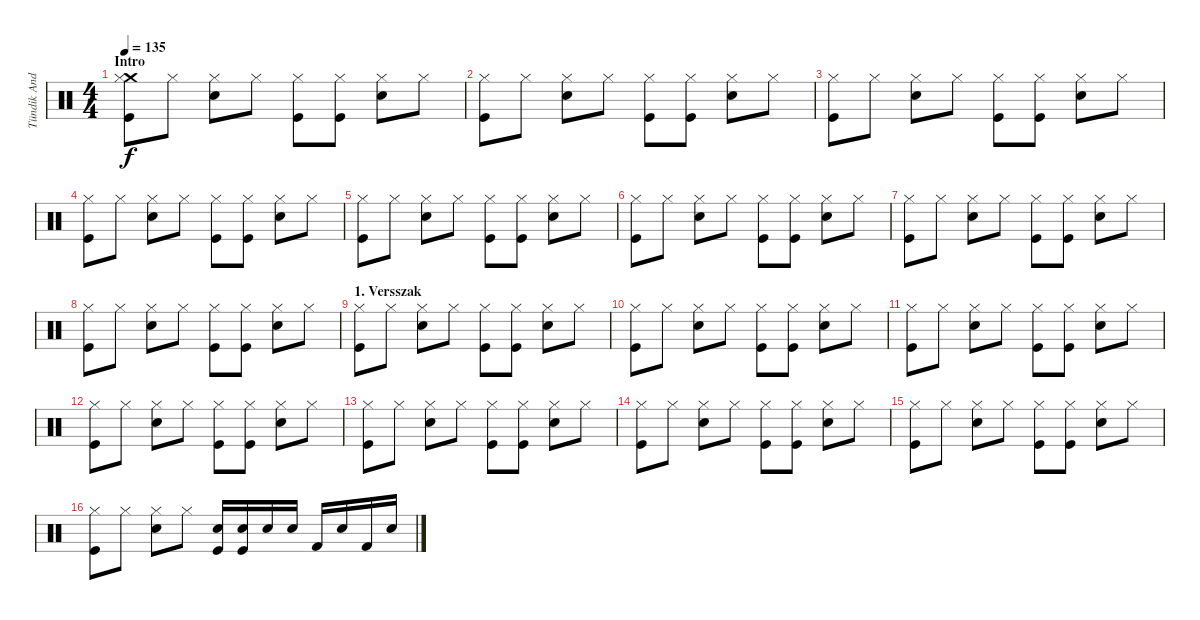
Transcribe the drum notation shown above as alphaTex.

\track ("Tündik András - Dob" "Tündik And") {instrument percussion}
\staff {score}
\articulation defaults
\ts (4 4)
\section ("" "Intro")
\tempo 135
\clef neutral
\ks c
("Crash medium (hit)" "Hi-Hat (closed)" "Kick (hit)").8{dy f} "Hi-Hat (closed)".8 ("Snare (hit) 2" "Hi-Hat (closed)").8 "Hi-Hat (closed)".8 ("Hi-Hat (closed)" "Kick (hit)").8 ("Hi-Hat (closed)" "Kick (hit)").8 ("Snare (hit) 2" "Hi-Hat (closed)").8 "Hi-Hat (closed)".8 |
("Hi-Hat (closed)" "Kick (hit)").8 "Hi-Hat (closed)".8 ("Snare (hit) 2" "Hi-Hat (closed)").8 "Hi-Hat (closed)".8 ("Hi-Hat (closed)" "Kick (hit)").8 ("Hi-Hat (closed)" "Kick (hit)").8 ("Snare (hit) 2" "Hi-Hat (closed)").8 "Hi-Hat (closed)".8 |
("Hi-Hat (closed)" "Kick (hit)").8 "Hi-Hat (closed)".8 ("Snare (hit) 2" "Hi-Hat (closed)").8 "Hi-Hat (closed)".8 ("Hi-Hat (closed)" "Kick (hit)").8 ("Hi-Hat (closed)" "Kick (hit)").8 ("Snare (hit) 2" "Hi-Hat (closed)").8 "Hi-Hat (closed)".8 |
("Hi-Hat (closed)" "Kick (hit)").8 "Hi-Hat (closed)".8 ("Snare (hit) 2" "Hi-Hat (closed)").8 "Hi-Hat (closed)".8 ("Hi-Hat (closed)" "Kick (hit)").8 ("Hi-Hat (closed)" "Kick (hit)").8 ("Snare (hit) 2" "Hi-Hat (closed)").8 "Hi-Hat (closed)".8 |
("Hi-Hat (closed)" "Kick (hit)").8 "Hi-Hat (closed)".8 ("Snare (hit) 2" "Hi-Hat (closed)").8 "Hi-Hat (closed)".8 ("Hi-Hat (closed)" "Kick (hit)").8 ("Hi-Hat (closed)" "Kick (hit)").8 ("Snare (hit) 2" "Hi-Hat (closed)").8 "Hi-Hat (closed)".8 |
("Hi-Hat (closed)" "Kick (hit)").8 "Hi-Hat (closed)".8 ("Snare (hit) 2" "Hi-Hat (closed)").8 "Hi-Hat (closed)".8 ("Hi-Hat (closed)" "Kick (hit)").8 ("Hi-Hat (closed)" "Kick (hit)").8 ("Snare (hit) 2" "Hi-Hat (closed)").8 "Hi-Hat (closed)".8 |
("Hi-Hat (closed)" "Kick (hit)").8 "Hi-Hat (closed)".8 ("Snare (hit) 2" "Hi-Hat (closed)").8 "Hi-Hat (closed)".8 ("Hi-Hat (closed)" "Kick (hit)").8 ("Hi-Hat (closed)" "Kick (hit)").8 ("Snare (hit) 2" "Hi-Hat (closed)").8 "Hi-Hat (closed)".8 |
("Hi-Hat (closed)" "Kick (hit)").8 "Hi-Hat (closed)".8 ("Snare (hit) 2" "Hi-Hat (closed)").8 "Hi-Hat (closed)".8 ("Hi-Hat (closed)" "Kick (hit)").8 ("Hi-Hat (closed)" "Kick (hit)").8 ("Snare (hit) 2" "Hi-Hat (closed)").8 "Hi-Hat (closed)".8 |
\section ("" "1. Versszak")
("Hi-Hat (closed)" "Kick (hit)").8 "Hi-Hat (closed)".8 ("Snare (hit) 2" "Hi-Hat (closed)").8 "Hi-Hat (closed)".8 ("Hi-Hat (closed)" "Kick (hit)").8 ("Hi-Hat (closed)" "Kick (hit)").8 ("Snare (hit) 2" "Hi-Hat (closed)").8 "Hi-Hat (closed)".8 |
("Hi-Hat (closed)" "Kick (hit)").8 "Hi-Hat (closed)".8 ("Snare (hit) 2" "Hi-Hat (closed)").8 "Hi-Hat (closed)".8 ("Hi-Hat (closed)" "Kick (hit)").8 ("Hi-Hat (closed)" "Kick (hit)").8 ("Snare (hit) 2" "Hi-Hat (closed)").8 "Hi-Hat (closed)".8 |
("Hi-Hat (closed)" "Kick (hit)").8 "Hi-Hat (closed)".8 ("Snare (hit) 2" "Hi-Hat (closed)").8 "Hi-Hat (closed)".8 ("Hi-Hat (closed)" "Kick (hit)").8 ("Hi-Hat (closed)" "Kick (hit)").8 ("Snare (hit) 2" "Hi-Hat (closed)").8 "Hi-Hat (closed)".8 |
("Hi-Hat (closed)" "Kick (hit)").8 "Hi-Hat (closed)".8 ("Snare (hit) 2" "Hi-Hat (closed)").8 "Hi-Hat (closed)".8 ("Hi-Hat (closed)" "Kick (hit)").8 ("Hi-Hat (closed)" "Kick (hit)").8 ("Snare (hit) 2" "Hi-Hat (closed)").8 "Hi-Hat (closed)".8 |
("Hi-Hat (closed)" "Kick (hit)").8 "Hi-Hat (closed)".8 ("Snare (hit) 2" "Hi-Hat (closed)").8 "Hi-Hat (closed)".8 ("Hi-Hat (closed)" "Kick (hit)").8 ("Hi-Hat (closed)" "Kick (hit)").8 ("Snare (hit) 2" "Hi-Hat (closed)").8 "Hi-Hat (closed)".8 |
("Hi-Hat (closed)" "Kick (hit)").8 "Hi-Hat (closed)".8 ("Snare (hit) 2" "Hi-Hat (closed)").8 "Hi-Hat (closed)".8 ("Hi-Hat (closed)" "Kick (hit)").8 ("Hi-Hat (closed)" "Kick (hit)").8 ("Snare (hit) 2" "Hi-Hat (closed)").8 "Hi-Hat (closed)".8 |
("Hi-Hat (closed)" "Kick (hit)").8 "Hi-Hat (closed)".8 ("Snare (hit) 2" "Hi-Hat (closed)").8 "Hi-Hat (closed)".8 ("Hi-Hat (closed)" "Kick (hit)").8 ("Hi-Hat (closed)" "Kick (hit)").8 ("Snare (hit) 2" "Hi-Hat (closed)").8 "Hi-Hat (closed)".8 |
("Hi-Hat (closed)" "Kick (hit)").8 "Hi-Hat (closed)".8 ("Snare (hit) 2" "Hi-Hat (closed)").8 "Hi-Hat (closed)".8 ("Snare (hit) 2" "Kick (hit)").16 ("Snare (hit) 2" "Kick (hit)").16 "Snare (hit) 2".16 "Snare (hit) 2".16 "Kick (hit) 2".16 "Snare (hit) 2".16 "Kick (hit) 2".16 "Snare (hit) 2".16
